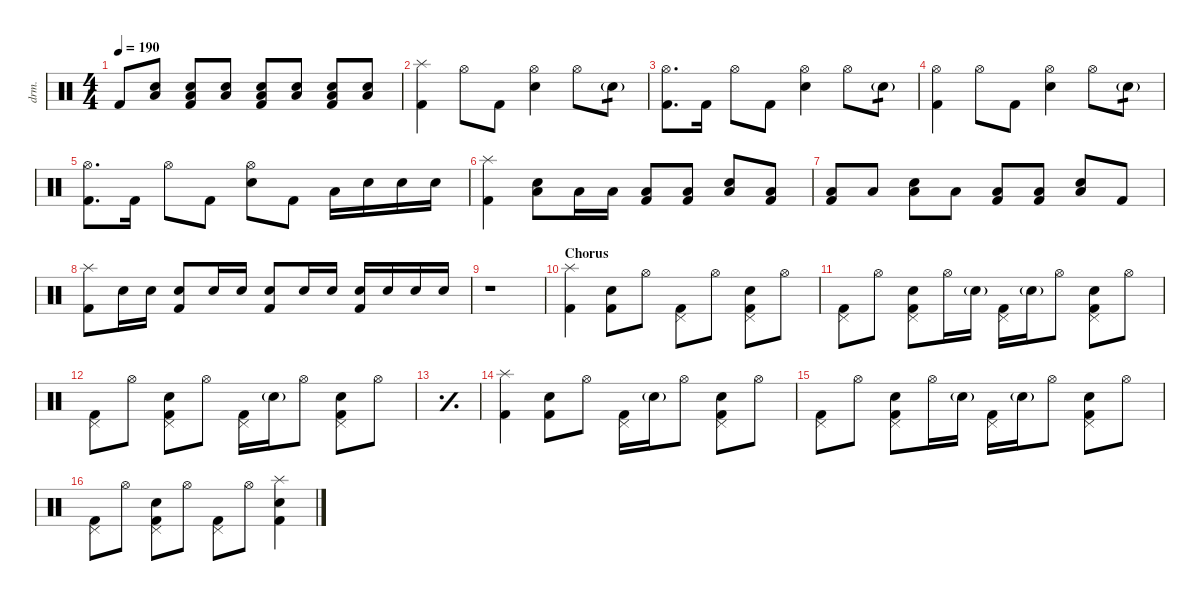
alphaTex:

\defaultSystemsLayout 4
\hideDynamics
\bracketExtendMode nobrackets
\track ("伊地知虹夏" "drm.") {instrument percussion}
\staff {score}
\articulation defaults
\ts (4 4)
\tempo 190
\clef neutral
\ks c "Kick (hit) 2".8{dy mf beam Up}
("Low Tom (hit)" "Snare (hit) 2").8{beam Up} ("Low Tom (hit)" "Snare (hit) 2" "Kick (hit) 2").8{beam Up} ("Low Tom (hit)" "Snare (hit) 2").8{beam Up} ("Low Tom (hit)" "Snare (hit) 2" "Kick (hit) 2").8{beam Up} ("Low Tom (hit)" "Snare (hit) 2").8{beam Up} ("Low Tom (hit)" "Snare (hit) 2" "Kick (hit) 2").8{beam Up} ("Low Tom (hit)" "Snare (hit) 2").8{beam Up} |
("Kick (hit) 2" "Splash (hit)").4{beam Down} "Hi-Hat (open)".8{beam Down} "Kick (hit) 2".8{beam Down} ("Hi-Hat (open)" "Snare (hit) 2").4{beam Down} "Hi-Hat (open)".8{beam Down} "Snare (hit) 2"{g}.8{tp 1 beam Down} |
("Kick (hit) 2" "Hi-Hat (open)").8{d beam Down} "Kick (hit) 2".16{beam Down} "Hi-Hat (open)".8{beam Down} "Kick (hit) 2".8{beam Down} ("Hi-Hat (open)" "Snare (hit) 2").4{beam Down} "Hi-Hat (open)".8{beam Down} "Snare (hit) 2"{g}.8{tp 1 beam Down} |
("Kick (hit) 2" "Hi-Hat (open)").4{beam Down} "Hi-Hat (open)".8{beam Down} "Kick (hit) 2".8{beam Down} ("Hi-Hat (open)" "Snare (hit) 2").4{beam Down} "Hi-Hat (open)".8{beam Down} "Snare (hit) 2"{g}.8{tp 1 beam Down} |
("Hi-Hat (open)" "Kick (hit) 2").8{d beam Down} "Kick (hit) 2".16{beam Down} "Hi-Hat (open)".8{beam Down} "Kick (hit) 2".8{beam Down} ("Snare (hit) 2" "Hi-Hat (open)").8{beam Down} "Kick (hit) 2".8{beam Down} "Low Tom (hit)".16{beam Down} "Snare (hit) 2".16{beam Down} "Snare (hit) 2".16{beam Down} "Snare (hit) 2".16{beam Down} |
("Kick (hit) 2" "Splash (hit)").4{beam Down} ("Low Tom (hit)" "Snare (hit) 2").8{beam Down} "Low Tom (hit)".16{beam Down} "Low Tom (hit)".16{beam Down} ("Low Tom (hit)" "Kick (hit) 2").8{beam Up} ("Kick (hit) 2" "Low Tom (hit)").8{beam Up} ("Low Tom (hit)" "Snare (hit) 2").8{beam Up} ("Low Tom (hit)" "Kick (hit) 2").8{beam Up} |
("Kick (hit) 2" "Low Tom (hit)").8{beam Up} "Low Tom (hit)".8{beam Up} ("Low Tom (hit)" "Snare (hit) 2").8{beam Down} "Low Tom (hit)".8{beam Down} ("Low Tom (hit)" "Kick (hit) 2").8{beam Up} ("Kick (hit) 2" "Low Tom (hit)").8{beam Up} ("Low Tom (hit)" "Snare (hit) 2").8{beam Up} "Kick (hit) 2".8{beam Up} |
("Kick (hit) 2" "Splash (hit)").8{beam Down} "Snare (hit) 2".16{beam Down} "Snare (hit) 2".16{beam Down} ("Snare (hit) 2" "Kick (hit) 2").8{beam Up} "Snare (hit) 2".16{beam Up} "Snare (hit) 2".16{beam Up} ("Snare (hit) 2" "Kick (hit) 2").8{beam Up} "Snare (hit) 2".16{beam Up} "Snare (hit) 2".16{beam Up} ("Snare (hit) 2" "Kick (hit) 2").16{beam Up} "Snare (hit) 2".16{beam Up} "Snare (hit) 2".16{beam Up} "Snare (hit) 2".16{beam Up} |
r.1{beam Down} |
\section ("" "Chorus")
("Splash (hit)" "Kick (hit) 2").4{beam Down} ("Kick (hit) 2" "Snare (hit) 2").8{beam Down} "Hi-Hat (open)".8{beam Down} ("Kick (hit) 2" "Pedal Hi-Hat (hit)").8{beam Down} "Hi-Hat (open)".8{beam Down} ("Snare (hit) 2" "Kick (hit) 2" "Pedal Hi-Hat (hit)").8{beam Down} "Hi-Hat (open)".8{beam Down} |
("Kick (hit) 2" "Pedal Hi-Hat (hit)").8{beam Down} "Hi-Hat (open)".8{beam Down} ("Kick (hit) 2" "Pedal Hi-Hat (hit)" "Snare (hit) 2").8{beam Down} "Hi-Hat (open)".16{beam Down} "Snare (hit) 2"{g}.16{beam Down} ("Kick (hit) 2" "Pedal Hi-Hat (hit)").16{beam Down} "Snare (hit) 2"{g}.16{beam Down} "Hi-Hat (open)".8{beam Down} ("Snare (hit) 2" "Kick (hit) 2" "Pedal Hi-Hat (hit)").8{beam Down} "Hi-Hat (open)".8{beam Down} |
("Kick (hit) 2" "Pedal Hi-Hat (hit)").8{beam Down} "Hi-Hat (open)".8{beam Down} ("Kick (hit) 2" "Pedal Hi-Hat (hit)" "Snare (hit) 2").8{beam Down} "Hi-Hat (open)".8{beam Down} ("Kick (hit) 2" "Pedal Hi-Hat (hit)").16{beam Down} "Snare (hit) 2"{g}.16{beam Down} "Hi-Hat (open)".8{beam Down} ("Snare (hit) 2" "Kick (hit) 2" "Pedal Hi-Hat (hit)").8{beam Down} "Hi-Hat (open)".8{beam Down} |
\simile simple
|
\simile none
("Splash (hit)" "Kick (hit) 2").4{beam Down} ("Kick (hit) 2" "Snare (hit) 2").8{beam Down} "Hi-Hat (open)".8{beam Down} ("Kick (hit) 2" "Pedal Hi-Hat (hit)").16{beam Down} "Snare (hit) 2"{g}.16{beam Down} "Hi-Hat (open)".8{beam Down} ("Snare (hit) 2" "Kick (hit) 2" "Pedal Hi-Hat (hit)").8{beam Down} "Hi-Hat (open)".8{beam Down} |
("Kick (hit) 2" "Pedal Hi-Hat (hit)").8{beam Down} "Hi-Hat (open)".8{beam Down} ("Kick (hit) 2" "Pedal Hi-Hat (hit)" "Snare (hit) 2").8{beam Down} "Hi-Hat (open)".16{beam Down} "Snare (hit) 2"{g}.16{beam Down} ("Kick (hit) 2" "Pedal Hi-Hat (hit)").16{beam Down} "Snare (hit) 2"{g}.16{beam Down} "Hi-Hat (open)".8{beam Down} ("Snare (hit) 2" "Kick (hit) 2" "Pedal Hi-Hat (hit)").8{beam Down} "Hi-Hat (open)".8{beam Down} |
("Kick (hit) 2" "Pedal Hi-Hat (hit)").8{beam Down} "Hi-Hat (open)".8{beam Down} ("Kick (hit) 2" "Pedal Hi-Hat (hit)" "Snare (hit) 2").8{beam Down} "Hi-Hat (open)".8{beam Down} ("Kick (hit) 2" "Pedal Hi-Hat (hit)").8{beam Down} "Hi-Hat (open)".8{beam Down} ("Snare (hit) 2" "Kick (hit) 2" "Splash (hit)").4{beam Down}
